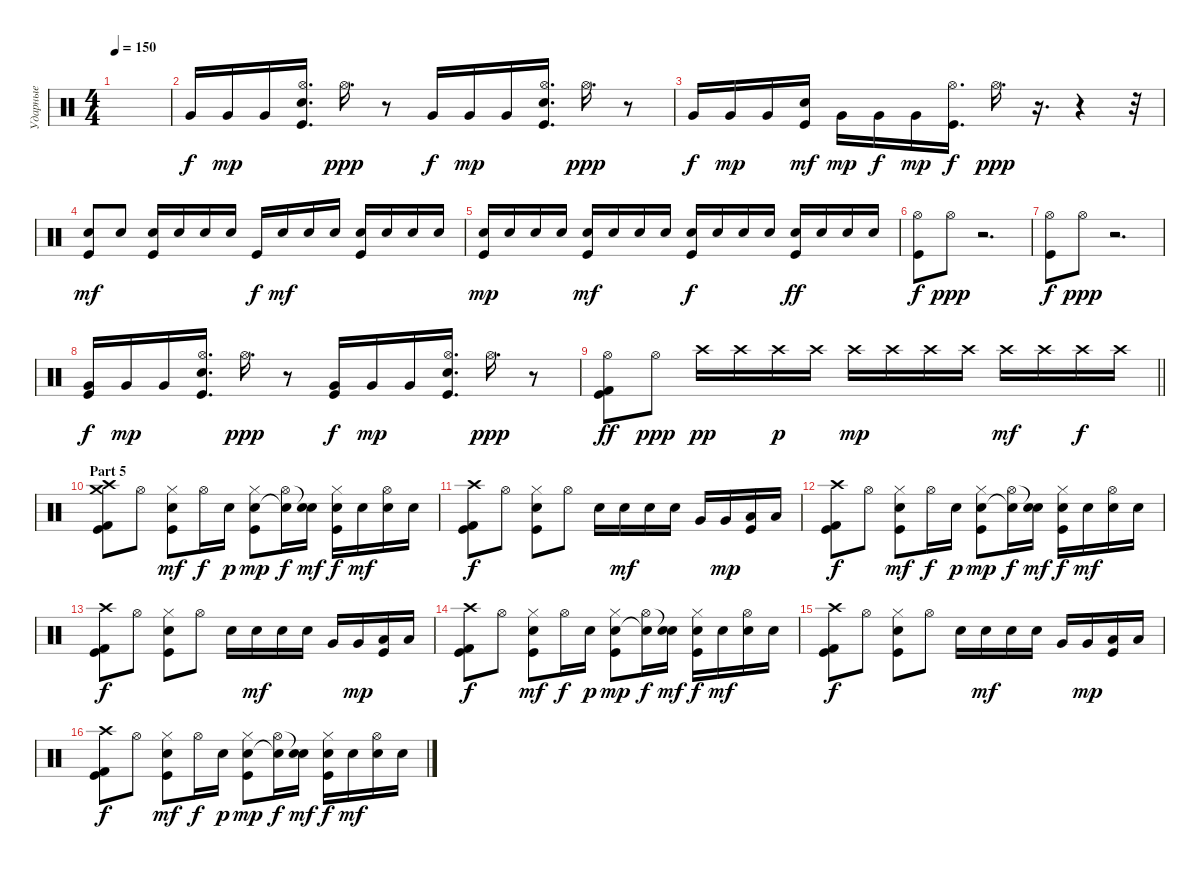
\track ("Ударные" "Ударные") {instrument percussion}
\staff {score}
\articulation defaults
\ts (4 4)
\tempo 150
\clef neutral
\ks c
|
"Very Low Tom (hit)".16 "Very Low Tom (hit)".16{dy mp} "Very Low Tom (hit)".16 ("Electric Snare (hit)" "Hi-Hat (open)" "Kick (hit)").16{d} "Hi-Hat (open)".16{d dy ppp} r.8 "Very Low Tom (hit)".16{dy f} "Very Low Tom (hit)".16{dy mp} "Very Low Tom (hit)".16 ("Electric Snare (hit)" "Hi-Hat (open)" "Kick (hit)").16{d} "Hi-Hat (open)".16{d dy ppp} r.8 |
"Very Low Tom (hit)".16{dy f} "Very Low Tom (hit)".16{dy mp} "Very Low Tom (hit)".16 ("Electric Snare (hit)" "Kick (hit)").16{dy mf} "Very Low Tom (hit)".16{dy mp} "Very Low Tom (hit)".16{dy f} "Very Low Tom (hit)".16{dy mp} ("Hi-Hat (open)" "Kick (hit)").16{d dy f} "Hi-Hat (open)".16{d dy ppp} r.16{d} r.4 r.32 |
("Electric Snare (hit)" "Kick (hit)").8{dy mf} "Electric Snare (hit)".8 ("Electric Snare (hit)" "Kick (hit)").16 "Electric Snare (hit)".16 "Electric Snare (hit)".16 "Electric Snare (hit)".16 "Kick (hit)".16{dy f} "Electric Snare (hit)".16{dy mf} "Electric Snare (hit)".16 "Electric Snare (hit)".16 ("Electric Snare (hit)" "Kick (hit)").16 "Electric Snare (hit)".16 "Electric Snare (hit)".16 "Electric Snare (hit)".16 |
("Electric Snare (hit)" "Kick (hit)").16{dy mp} "Electric Snare (hit)".16 "Electric Snare (hit)".16 "Electric Snare (hit)".16 ("Electric Snare (hit)" "Kick (hit)").16{dy mf} "Electric Snare (hit)".16 "Electric Snare (hit)".16 "Electric Snare (hit)".16 ("Electric Snare (hit)" "Kick (hit)").16{dy f} "Electric Snare (hit)".16 "Electric Snare (hit)".16 "Electric Snare (hit)".16 ("Electric Snare (hit)" "Kick (hit)").16{dy ff} "Electric Snare (hit)".16 "Electric Snare (hit)".16 "Electric Snare (hit)".16 |
("Hi-Hat (open)" "Kick (hit)").8{dy f} "Hi-Hat (open)".8{dy ppp} r.2{d} |
("Hi-Hat (open)" "Kick (hit)").8{dy f} "Hi-Hat (open)".8{dy ppp} r.2{d} |
("Very Low Tom (hit)" "Kick (hit)").16{dy f} "Very Low Tom (hit)".16{dy mp} "Very Low Tom (hit)".16 ("Electric Snare (hit)" "Hi-Hat (open)" "Kick (hit)").16{d} "Hi-Hat (open)".16{d dy ppp} r.8 ("Very Low Tom (hit)" "Kick (hit)").16{dy f} "Very Low Tom (hit)".16{dy mp} "Very Low Tom (hit)".16 ("Electric Snare (hit)" "Hi-Hat (open)" "Kick (hit)").16{d} "Hi-Hat (open)".16{d dy ppp} r.8 |
\barLineRight lightlight
("Hi-Hat (open)" "Kick (hit)" "Kick (hit) 2").8{dy ff} "Hi-Hat (open)".8{dy ppp} "Crash high (hit)".16{dy pp} "Crash high (hit)".16 "Crash high (hit)".16{dy p} "Crash high (hit)".16 "Crash high (hit)".16{dy mp} "Crash high (hit)".16 "Crash high (hit)".16 "Crash high (hit)".16 "Crash high (hit)".16{dy mf} "Crash high (hit)".16 "Crash high (hit)".16{dy f} "Crash high (hit)".16 |
\section ("" "Part 5")
("Crash medium (hit)" "Crash high (hit)" "Kick (hit) 2" "Kick (hit)").8 "Hi-Hat (open)".8 ("Hi-Hat (closed)" "Electric Snare (hit)" "Kick (hit)").8{dy mf} "Hi-Hat (open)".16{dy f} "Electric Snare (hit)".16{dy p} ("Hi-Hat (closed)" "Snare (hit) 2" "Kick (hit)").8{dy mp} ("Hi-Hat (open)" "Snare (hit)"{t}).16{dy f} ("Snare (hit)"{t} "Electric Snare (hit)").16{dy mf} ("Hi-Hat (closed)" "Electric Snare (hit)" "Kick (hit)").16{dy f} "Electric Snare (hit)".16{dy mf} ("Hi-Hat (open)" "Electric Snare (hit)").16 "Electric Snare (hit)".16 |
("Crash high (hit)" "Kick (hit) 2" "Kick (hit)").8{dy f} "Hi-Hat (open)".8 ("Hi-Hat (closed)" "Electric Snare (hit)" "Kick (hit)").8 "Hi-Hat (open)".8 "Electric Snare (hit)".16 "Electric Snare (hit)".16{dy mf} "Electric Snare (hit)".16 "Electric Snare (hit)".16 "Very Low Tom (hit)".16 "Very Low Tom (hit)".16{dy mp} ("Low Floor Tom (hit)" "Kick (hit)").16 "Low Floor Tom (hit)".16 |
("Crash high (hit)" "Kick (hit) 2" "Kick (hit)").8{dy f} "Hi-Hat (open)".8 ("Hi-Hat (closed)" "Electric Snare (hit)" "Kick (hit)").8{dy mf} "Hi-Hat (open)".16{dy f} "Electric Snare (hit)".16{dy p} ("Hi-Hat (closed)" "Snare (hit) 2" "Kick (hit)").8{dy mp} ("Hi-Hat (open)" "Snare (hit)"{t}).16{dy f} ("Snare (hit)"{t} "Electric Snare (hit)").16{dy mf} ("Hi-Hat (closed)" "Electric Snare (hit)" "Kick (hit)").16{dy f} "Electric Snare (hit)".16{dy mf} ("Hi-Hat (open)" "Electric Snare (hit)").16 "Electric Snare (hit)".16 |
("Crash high (hit)" "Kick (hit) 2" "Kick (hit)").8{dy f} "Hi-Hat (open)".8 ("Hi-Hat (closed)" "Electric Snare (hit)" "Kick (hit)").8 "Hi-Hat (open)".8 "Electric Snare (hit)".16 "Electric Snare (hit)".16{dy mf} "Electric Snare (hit)".16 "Electric Snare (hit)".16 "Very Low Tom (hit)".16 "Very Low Tom (hit)".16{dy mp} ("Low Floor Tom (hit)" "Kick (hit)").16 "Low Floor Tom (hit)".16 |
("Crash high (hit)" "Kick (hit) 2" "Kick (hit)").8{dy f} "Hi-Hat (open)".8 ("Hi-Hat (closed)" "Electric Snare (hit)" "Kick (hit)").8{dy mf} "Hi-Hat (open)".16{dy f} "Electric Snare (hit)".16{dy p} ("Hi-Hat (closed)" "Snare (hit) 2" "Kick (hit)").8{dy mp} ("Hi-Hat (open)" "Snare (hit)"{t}).16{dy f} ("Snare (hit)"{t} "Electric Snare (hit)").16{dy mf} ("Hi-Hat (closed)" "Electric Snare (hit)" "Kick (hit)").16{dy f} "Electric Snare (hit)".16{dy mf} ("Hi-Hat (open)" "Electric Snare (hit)").16 "Electric Snare (hit)".16 |
("Crash high (hit)" "Kick (hit) 2" "Kick (hit)").8{dy f} "Hi-Hat (open)".8 ("Hi-Hat (closed)" "Electric Snare (hit)" "Kick (hit)").8 "Hi-Hat (open)".8 "Electric Snare (hit)".16 "Electric Snare (hit)".16{dy mf} "Electric Snare (hit)".16 "Electric Snare (hit)".16 "Very Low Tom (hit)".16 "Very Low Tom (hit)".16{dy mp} ("Low Floor Tom (hit)" "Kick (hit)").16 "Low Floor Tom (hit)".16 |
("Crash high (hit)" "Kick (hit) 2" "Kick (hit)").8{dy f} "Hi-Hat (open)".8 ("Hi-Hat (closed)" "Electric Snare (hit)" "Kick (hit)").8{dy mf} "Hi-Hat (open)".16{dy f} "Electric Snare (hit)".16{dy p} ("Hi-Hat (closed)" "Snare (hit) 2" "Kick (hit)").8{dy mp} ("Hi-Hat (open)" "Snare (hit)"{t}).16{dy f} ("Snare (hit)"{t} "Electric Snare (hit)").16{dy mf} ("Hi-Hat (closed)" "Electric Snare (hit)" "Kick (hit)").16{dy f} "Electric Snare (hit)".16{dy mf} ("Hi-Hat (open)" "Electric Snare (hit)").16 "Electric Snare (hit)".16
